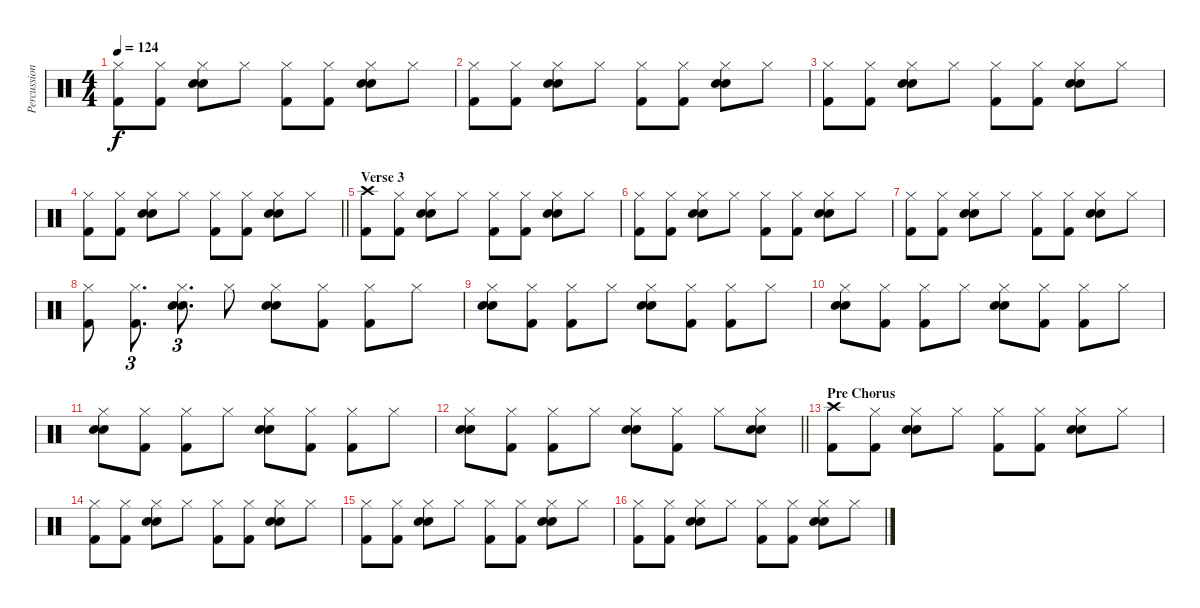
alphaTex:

\track ("Percussion" "Percussion") {instrument percussion}
\staff {score}
\articulation defaults
\ts (4 4)
\tempo 124
\clef neutral
\ks c
("Hi-Hat (closed)" "Kick (hit) 2").8{dy f} ("Hi-Hat (closed)" "Kick (hit) 2").8 ("Hi-Hat (closed)" "Snare (hit) 2" "Electric Snare (hit)").8 "Hi-Hat (closed)".8 ("Hi-Hat (closed)" "Kick (hit) 2").8 ("Hi-Hat (closed)" "Kick (hit) 2").8 ("Hi-Hat (closed)" "Snare (hit) 2" "Electric Snare (hit)").8 "Hi-Hat (closed)".8 |
("Hi-Hat (closed)" "Kick (hit) 2").8 ("Hi-Hat (closed)" "Kick (hit) 2").8 ("Hi-Hat (closed)" "Snare (hit) 2" "Electric Snare (hit)").8 "Hi-Hat (closed)".8 ("Hi-Hat (closed)" "Kick (hit) 2").8 ("Hi-Hat (closed)" "Kick (hit) 2").8 ("Hi-Hat (closed)" "Snare (hit) 2" "Electric Snare (hit)").8 "Hi-Hat (closed)".8 |
("Hi-Hat (closed)" "Kick (hit) 2").8 ("Hi-Hat (closed)" "Kick (hit) 2").8 ("Hi-Hat (closed)" "Snare (hit) 2" "Electric Snare (hit)").8 "Hi-Hat (closed)".8 ("Hi-Hat (closed)" "Kick (hit) 2").8 ("Hi-Hat (closed)" "Kick (hit) 2").8 ("Hi-Hat (closed)" "Snare (hit) 2" "Electric Snare (hit)").8 "Hi-Hat (closed)".8 |
\barLineRight lightlight
("Hi-Hat (closed)" "Kick (hit) 2").8 ("Hi-Hat (closed)" "Kick (hit) 2").8 ("Hi-Hat (closed)" "Snare (hit) 2" "Electric Snare (hit)").8 "Hi-Hat (closed)".8 ("Hi-Hat (closed)" "Kick (hit) 2").8 ("Hi-Hat (closed)" "Kick (hit) 2").8 ("Hi-Hat (closed)" "Snare (hit) 2" "Electric Snare (hit)").8 "Hi-Hat (closed)".8 |
\section ("" "Verse 3")
("Crash high (hit)" "Kick (hit) 2").8 ("Hi-Hat (closed)" "Kick (hit) 2").8 ("Hi-Hat (closed)" "Snare (hit) 2" "Electric Snare (hit)").8 "Hi-Hat (closed)".8 ("Hi-Hat (closed)" "Kick (hit) 2").8 ("Hi-Hat (closed)" "Kick (hit) 2").8 ("Hi-Hat (closed)" "Snare (hit) 2" "Electric Snare (hit)").8 "Hi-Hat (closed)".8 |
("Hi-Hat (closed)" "Kick (hit) 2").8 ("Hi-Hat (closed)" "Kick (hit) 2").8 ("Hi-Hat (closed)" "Snare (hit) 2" "Electric Snare (hit)").8 "Hi-Hat (closed)".8 ("Hi-Hat (closed)" "Kick (hit) 2").8 ("Hi-Hat (closed)" "Kick (hit) 2").8 ("Hi-Hat (closed)" "Snare (hit) 2" "Electric Snare (hit)").8 "Hi-Hat (closed)".8 |
("Hi-Hat (closed)" "Kick (hit) 2").8 ("Hi-Hat (closed)" "Kick (hit) 2").8 ("Hi-Hat (closed)" "Snare (hit) 2" "Electric Snare (hit)").8 "Hi-Hat (closed)".8 ("Hi-Hat (closed)" "Kick (hit) 2").8 ("Hi-Hat (closed)" "Kick (hit) 2").8 ("Hi-Hat (closed)" "Snare (hit) 2" "Electric Snare (hit)").8 "Hi-Hat (closed)".8 |
("Hi-Hat (closed)" "Kick (hit) 2").8 ("Hi-Hat (closed)" "Kick (hit) 2").8{d tu (3 2)} ("Hi-Hat (closed)" "Snare (hit) 2" "Electric Snare (hit)").8{d tu (3 2)} "Hi-Hat (closed)".8 ("Hi-Hat (closed)" "Snare (hit) 2" "Electric Snare (hit)").8 ("Hi-Hat (closed)" "Kick (hit) 2").8 ("Hi-Hat (closed)" "Kick (hit) 2").8 "Hi-Hat (closed)".8 |
("Hi-Hat (closed)" "Snare (hit) 2" "Electric Snare (hit)").8 ("Hi-Hat (closed)" "Kick (hit) 2").8 ("Hi-Hat (closed)" "Kick (hit) 2").8 "Hi-Hat (closed)".8 ("Hi-Hat (closed)" "Snare (hit) 2" "Electric Snare (hit)").8 ("Hi-Hat (closed)" "Kick (hit) 2").8 ("Hi-Hat (closed)" "Kick (hit) 2").8 "Hi-Hat (closed)".8 |
("Hi-Hat (closed)" "Snare (hit) 2" "Electric Snare (hit)").8 ("Hi-Hat (closed)" "Kick (hit) 2").8 ("Hi-Hat (closed)" "Kick (hit) 2").8 "Hi-Hat (closed)".8 ("Hi-Hat (closed)" "Snare (hit) 2" "Electric Snare (hit)").8 ("Hi-Hat (closed)" "Kick (hit) 2").8 ("Hi-Hat (closed)" "Kick (hit) 2").8 "Hi-Hat (closed)".8 |
("Hi-Hat (closed)" "Snare (hit) 2" "Electric Snare (hit)").8 ("Hi-Hat (closed)" "Kick (hit) 2").8 ("Hi-Hat (closed)" "Kick (hit) 2").8 "Hi-Hat (closed)".8 ("Hi-Hat (closed)" "Snare (hit) 2" "Electric Snare (hit)").8 ("Hi-Hat (closed)" "Kick (hit) 2").8 ("Hi-Hat (closed)" "Kick (hit) 2").8 "Hi-Hat (closed)".8 |
\barLineRight lightlight
("Hi-Hat (closed)" "Snare (hit) 2" "Electric Snare (hit)").8 ("Hi-Hat (closed)" "Kick (hit) 2").8 ("Hi-Hat (closed)" "Kick (hit) 2").8 "Hi-Hat (closed)".8 ("Hi-Hat (closed)" "Snare (hit) 2" "Electric Snare (hit)").8 ("Hi-Hat (closed)" "Kick (hit) 2").8 "Hi-Hat (closed)".8 ("Hi-Hat (closed)" "Snare (hit) 2" "Electric Snare (hit)").8 |
\section ("" "Pre Chorus")
("Crash high (hit)" "Kick (hit) 2").8 ("Hi-Hat (closed)" "Kick (hit) 2").8 ("Hi-Hat (closed)" "Snare (hit) 2" "Electric Snare (hit)").8 "Hi-Hat (closed)".8 ("Hi-Hat (closed)" "Kick (hit) 2").8 ("Hi-Hat (closed)" "Kick (hit) 2").8 ("Hi-Hat (closed)" "Snare (hit) 2" "Electric Snare (hit)").8 "Hi-Hat (closed)".8 |
("Hi-Hat (closed)" "Kick (hit) 2").8 ("Hi-Hat (closed)" "Kick (hit) 2").8 ("Hi-Hat (closed)" "Snare (hit) 2" "Electric Snare (hit)").8 "Hi-Hat (closed)".8 ("Hi-Hat (closed)" "Kick (hit) 2").8 ("Hi-Hat (closed)" "Kick (hit) 2").8 ("Hi-Hat (closed)" "Snare (hit) 2" "Electric Snare (hit)").8 "Hi-Hat (closed)".8 |
("Hi-Hat (closed)" "Kick (hit) 2").8 ("Hi-Hat (closed)" "Kick (hit) 2").8 ("Hi-Hat (closed)" "Snare (hit) 2" "Electric Snare (hit)").8 "Hi-Hat (closed)".8 ("Hi-Hat (closed)" "Kick (hit) 2").8 ("Hi-Hat (closed)" "Kick (hit) 2").8 ("Hi-Hat (closed)" "Snare (hit) 2" "Electric Snare (hit)").8 "Hi-Hat (closed)".8 |
("Hi-Hat (closed)" "Kick (hit) 2").8 ("Hi-Hat (closed)" "Kick (hit) 2").8 ("Hi-Hat (closed)" "Snare (hit) 2" "Electric Snare (hit)").8 "Hi-Hat (closed)".8 ("Hi-Hat (closed)" "Kick (hit) 2").8 ("Hi-Hat (closed)" "Kick (hit) 2").8 ("Hi-Hat (closed)" "Snare (hit) 2" "Electric Snare (hit)").8 "Hi-Hat (closed)".8
